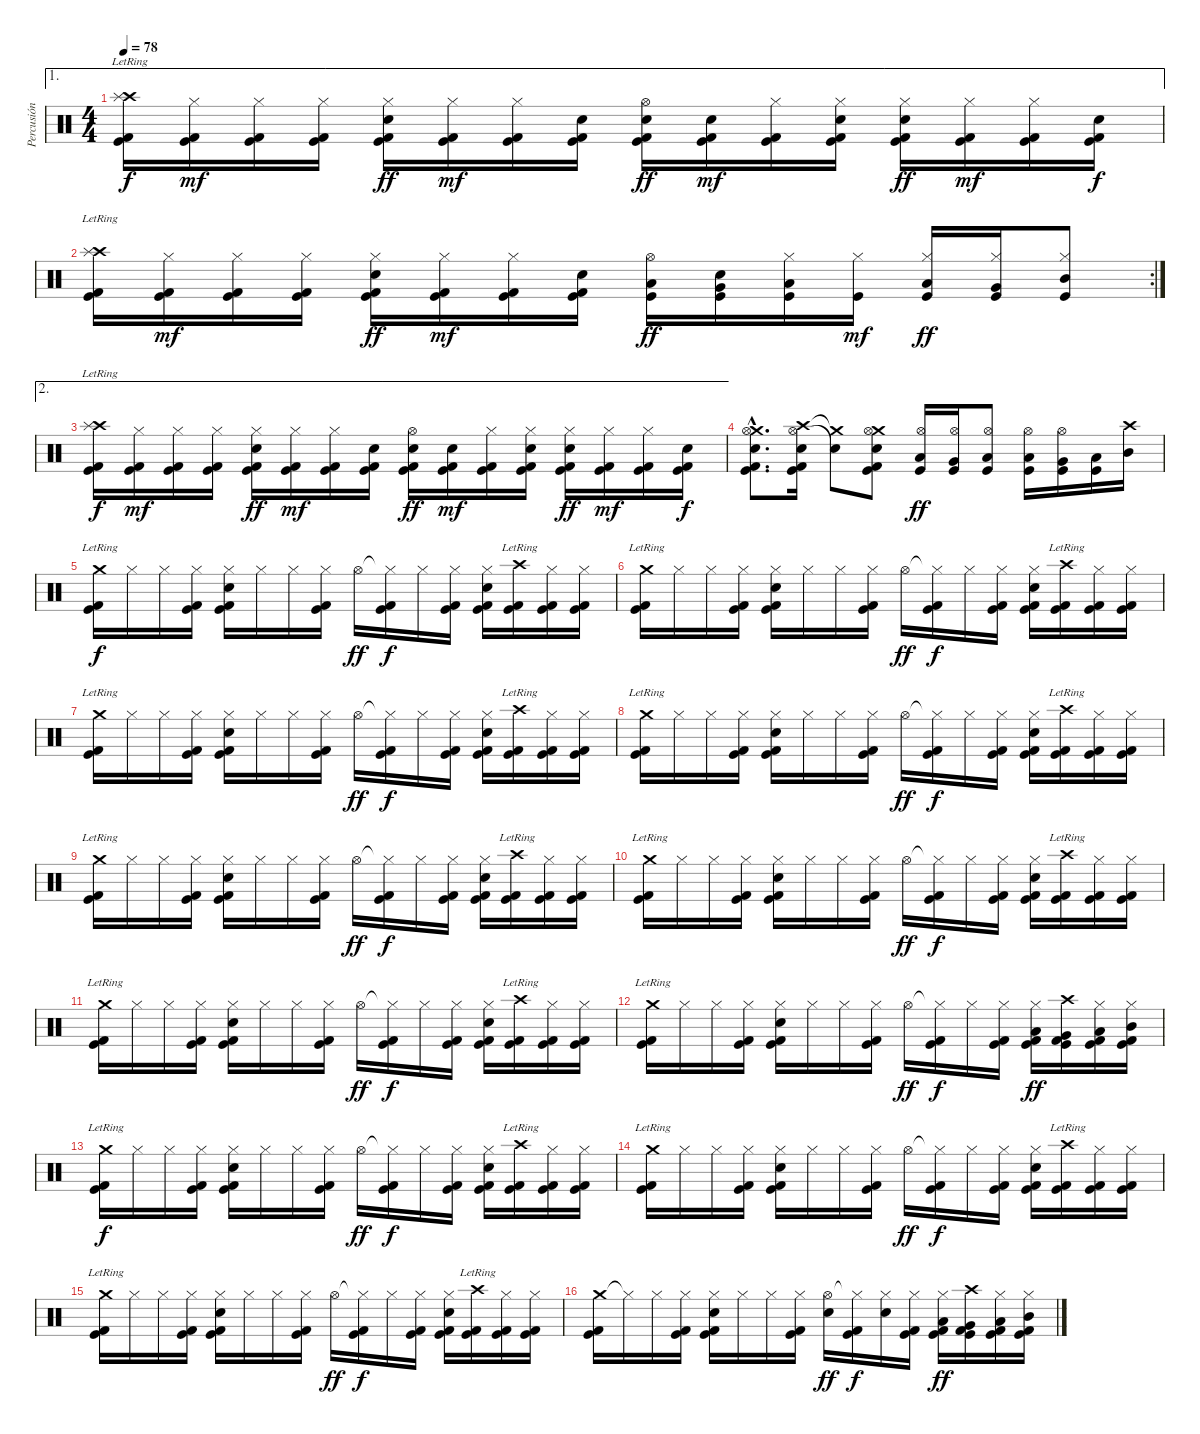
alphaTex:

\track ("Percusión" "Percusión") {instrument percussion}
\staff {score}
\articulation defaults
\ae 1
\ts (4 4)
\tempo 78
\clef neutral
\ks c
("Crash high (hit)"{lr} "Splash (hit)"{lr} "Kick (hit) 2" "Kick (hit)").16{dy f} ("Hi-Hat (closed)" "Kick (hit) 2" "Kick (hit)").16{dy mf} ("Hi-Hat (closed)" "Kick (hit) 2" "Kick (hit)").16 ("Hi-Hat (closed)" "Kick (hit) 2" "Kick (hit)").16 ("Hi-Hat (closed)" "Electric Snare (hit)" "Kick (hit) 2" "Kick (hit)").16{dy ff} ("Hi-Hat (closed)" "Kick (hit) 2" "Kick (hit)").16{dy mf} ("Hi-Hat (closed)" "Kick (hit) 2" "Kick (hit)").16 ("Snare (hit)" "Kick (hit) 2" "Kick (hit)").16 ("Hi-Hat (open)" "Electric Snare (hit)" "Kick (hit) 2" "Kick (hit)").16{dy ff} ("Snare (hit)" "Kick (hit) 2" "Kick (hit)").16{dy mf} ("Hi-Hat (closed)" "Kick (hit) 2" "Kick (hit)").16 ("Hi-Hat (closed)" "Electric Snare (hit)" "Kick (hit) 2" "Kick (hit)").16 ("Hi-Hat (closed)" "Electric Snare (hit)" "Kick (hit) 2" "Kick (hit)").16{dy ff} ("Hi-Hat (closed)" "Kick (hit) 2" "Kick (hit)").16{dy mf} ("Hi-Hat (closed)" "Kick (hit) 2" "Kick (hit)").16 ("Electric Snare (hit)" "Kick (hit) 2" "Kick (hit)").16{dy f} |
\rc 2
("Crash high (hit)"{lr} "Splash (hit)"{lr} "Kick (hit) 2" "Kick (hit)").16 ("Hi-Hat (closed)" "Kick (hit) 2" "Kick (hit)").16{dy mf} ("Hi-Hat (closed)" "Kick (hit) 2" "Kick (hit)").16 ("Hi-Hat (closed)" "Kick (hit) 2" "Kick (hit)").16 ("Hi-Hat (closed)" "Electric Snare (hit)" "Kick (hit) 2" "Kick (hit)").16{dy ff} ("Hi-Hat (closed)" "Kick (hit) 2" "Kick (hit)").16{dy mf} ("Hi-Hat (closed)" "Kick (hit) 2" "Kick (hit)").16 ("Snare (hit)" "Kick (hit) 2" "Kick (hit)").16 ("Hi-Hat (open)" "Low Floor Tom (hit)" "Kick (hit)").16{dy ff} ("Snare (hit)" "Very Low Tom (hit)" "Kick (hit)").16 ("Hi-Hat (closed)" "Low Tom (hit)" "Kick (hit)").16 ("Hi-Hat (closed)" "Kick (hit)").16{dy mf} ("Hi-Hat (closed)" "Low Floor Tom (hit)" "Kick (hit)").16{dy ff} ("Hi-Hat (closed)" "Very Low Tom (hit)" "Kick (hit)").16 ("Hi-Hat (closed)" "Mid Tom (hit)" "Kick (hit)").8 |
\ae 2
("Crash high (hit)"{lr} "Splash (hit)"{lr} "Kick (hit) 2" "Kick (hit)").16{dy f} ("Hi-Hat (closed)" "Kick (hit) 2" "Kick (hit)").16{dy mf} ("Hi-Hat (closed)" "Kick (hit) 2" "Kick (hit)").16 ("Hi-Hat (closed)" "Kick (hit) 2" "Kick (hit)").16 ("Hi-Hat (closed)" "Electric Snare (hit)" "Kick (hit) 2" "Kick (hit)").16{dy ff} ("Hi-Hat (closed)" "Kick (hit) 2" "Kick (hit)").16{dy mf} ("Hi-Hat (closed)" "Kick (hit) 2" "Kick (hit)").16 ("Snare (hit)" "Kick (hit) 2" "Kick (hit)").16 ("Hi-Hat (open)" "Electric Snare (hit)" "Kick (hit) 2" "Kick (hit)").16{dy ff} ("Snare (hit)" "Kick (hit) 2" "Kick (hit)").16{dy mf} ("Hi-Hat (closed)" "Kick (hit) 2" "Kick (hit)").16 ("Hi-Hat (closed)" "Electric Snare (hit)" "Kick (hit) 2" "Kick (hit)").16 ("Hi-Hat (closed)" "Electric Snare (hit)" "Kick (hit) 2" "Kick (hit)").16{dy ff} ("Hi-Hat (closed)" "Kick (hit) 2" "Kick (hit)").16{dy mf} ("Hi-Hat (closed)" "Kick (hit) 2" "Kick (hit)").16 ("Electric Snare (hit)" "Kick (hit) 2" "Kick (hit)").16{dy f} |
("Crash medium (hit)"{hac} "Hi-Hat (open)"{hac} "Electric Snare (hit)"{hac} "Kick (hit) 2"{hac} "Kick (hit)"{hac}).8{d} ("Crash high (hit)" "Hi-Hat (open)" "Electric Snare (hit)" "Kick (hit) 2" "Kick (hit)").16 ("Crash medium (hit)"{t} "Snare (hit)"{t}).8 ("Crash medium (hit)" "Hi-Hat (open)" "Electric Snare (hit)" "Kick (hit) 2" "Kick (hit)").8 ("Hi-Hat (open)" "Low Floor Tom (hit)" "Kick (hit)").16{dy ff} ("Hi-Hat (open)" "Very Low Tom (hit)" "Kick (hit)").16 ("Hi-Hat (open)" "Low Tom (hit)" "Kick (hit)").8 ("Hi-Hat (open)" "Low Floor Tom (hit)" "Kick (hit)").16 ("Hi-Hat (open)" "Very Low Tom (hit)" "Kick (hit)").16 ("Low Tom (hit)" "Kick (hit)").16 ("Crash high (hit)" "Mid Tom (hit)").16 |
("Crash medium (hit)"{lr} "Kick (hit) 2" "Kick (hit)").16{dy f} "Hi-Hat (closed)".16 "Hi-Hat (closed)".16 ("Hi-Hat (closed)" "Kick (hit)" "Kick (hit) 2").16 ("Hi-Hat (closed)" "Electric Snare (hit)" "Kick (hit)" "Kick (hit) 2").16 "Hi-Hat (closed)".16 "Hi-Hat (closed)".16 ("Hi-Hat (closed)" "Kick (hit)" "Kick (hit) 2").16 "Hi-Hat (open)".16{dy ff} ("Hi-Hat (closed)"{t} "Kick (hit)" "Kick (hit) 2").16{dy f} "Hi-Hat (closed)".16 ("Hi-Hat (closed)" "Kick (hit) 2" "Kick (hit)").16 ("Hi-Hat (closed)" "Electric Snare (hit)" "Kick (hit) 2" "Kick (hit)").16 ("Crash high (hit)"{lr} "Kick (hit) 2" "Kick (hit)").16 ("Hi-Hat (closed)" "Kick (hit) 2" "Kick (hit)").16 ("Hi-Hat (closed)" "Kick (hit) 2" "Kick (hit)").16 |
("Crash medium (hit)"{lr} "Kick (hit) 2" "Kick (hit)").16 "Hi-Hat (closed)".16 "Hi-Hat (closed)".16 ("Hi-Hat (closed)" "Kick (hit)" "Kick (hit) 2").16 ("Hi-Hat (closed)" "Electric Snare (hit)" "Kick (hit)" "Kick (hit) 2").16 "Hi-Hat (closed)".16 "Hi-Hat (closed)".16 ("Hi-Hat (closed)" "Kick (hit)" "Kick (hit) 2").16 "Hi-Hat (open)".16{dy ff} ("Hi-Hat (closed)"{t} "Kick (hit)" "Kick (hit) 2").16{dy f} "Hi-Hat (closed)".16 ("Hi-Hat (closed)" "Kick (hit) 2" "Kick (hit)").16 ("Hi-Hat (closed)" "Electric Snare (hit)" "Kick (hit) 2" "Kick (hit)").16 ("Crash high (hit)"{lr} "Kick (hit) 2" "Kick (hit)").16 ("Hi-Hat (closed)" "Kick (hit) 2" "Kick (hit)").16 ("Hi-Hat (closed)" "Kick (hit) 2" "Kick (hit)").16 |
("Crash medium (hit)"{lr} "Kick (hit) 2" "Kick (hit)").16 "Hi-Hat (closed)".16 "Hi-Hat (closed)".16 ("Hi-Hat (closed)" "Kick (hit)" "Kick (hit) 2").16 ("Hi-Hat (closed)" "Electric Snare (hit)" "Kick (hit)" "Kick (hit) 2").16 "Hi-Hat (closed)".16 "Hi-Hat (closed)".16 ("Hi-Hat (closed)" "Kick (hit)" "Kick (hit) 2").16 "Hi-Hat (open)".16{dy ff} ("Hi-Hat (closed)"{t} "Kick (hit)" "Kick (hit) 2").16{dy f} "Hi-Hat (closed)".16 ("Hi-Hat (closed)" "Kick (hit) 2" "Kick (hit)").16 ("Hi-Hat (closed)" "Electric Snare (hit)" "Kick (hit) 2" "Kick (hit)").16 ("Crash high (hit)"{lr} "Kick (hit) 2" "Kick (hit)").16 ("Hi-Hat (closed)" "Kick (hit) 2" "Kick (hit)").16 ("Hi-Hat (closed)" "Kick (hit) 2" "Kick (hit)").16 |
("Crash medium (hit)"{lr} "Kick (hit) 2" "Kick (hit)").16 "Hi-Hat (closed)".16 "Hi-Hat (closed)".16 ("Hi-Hat (closed)" "Kick (hit)" "Kick (hit) 2").16 ("Hi-Hat (closed)" "Electric Snare (hit)" "Kick (hit)" "Kick (hit) 2").16 "Hi-Hat (closed)".16 "Hi-Hat (closed)".16 ("Hi-Hat (closed)" "Kick (hit)" "Kick (hit) 2").16 "Hi-Hat (open)".16{dy ff} ("Hi-Hat (closed)"{t} "Kick (hit)" "Kick (hit) 2").16{dy f} "Hi-Hat (closed)".16 ("Hi-Hat (closed)" "Kick (hit) 2" "Kick (hit)").16 ("Hi-Hat (closed)" "Electric Snare (hit)" "Kick (hit) 2" "Kick (hit)").16 ("Crash high (hit)"{lr} "Kick (hit) 2" "Kick (hit)").16 ("Hi-Hat (closed)" "Kick (hit) 2" "Kick (hit)").16 ("Hi-Hat (closed)" "Kick (hit) 2" "Kick (hit)").16 |
("Crash medium (hit)"{lr} "Kick (hit) 2" "Kick (hit)").16 "Hi-Hat (closed)".16 "Hi-Hat (closed)".16 ("Hi-Hat (closed)" "Kick (hit)" "Kick (hit) 2").16 ("Hi-Hat (closed)" "Electric Snare (hit)" "Kick (hit)" "Kick (hit) 2").16 "Hi-Hat (closed)".16 "Hi-Hat (closed)".16 ("Hi-Hat (closed)" "Kick (hit)" "Kick (hit) 2").16 "Hi-Hat (open)".16{dy ff} ("Hi-Hat (closed)"{t} "Kick (hit)" "Kick (hit) 2").16{dy f} "Hi-Hat (closed)".16 ("Hi-Hat (closed)" "Kick (hit) 2" "Kick (hit)").16 ("Hi-Hat (closed)" "Electric Snare (hit)" "Kick (hit) 2" "Kick (hit)").16 ("Crash high (hit)"{lr} "Kick (hit) 2" "Kick (hit)").16 ("Hi-Hat (closed)" "Kick (hit) 2" "Kick (hit)").16 ("Hi-Hat (closed)" "Kick (hit) 2" "Kick (hit)").16 |
("Crash medium (hit)"{lr} "Kick (hit) 2" "Kick (hit)").16 "Hi-Hat (closed)".16 "Hi-Hat (closed)".16 ("Hi-Hat (closed)" "Kick (hit)" "Kick (hit) 2").16 ("Hi-Hat (closed)" "Electric Snare (hit)" "Kick (hit)" "Kick (hit) 2").16 "Hi-Hat (closed)".16 "Hi-Hat (closed)".16 ("Hi-Hat (closed)" "Kick (hit)" "Kick (hit) 2").16 "Hi-Hat (open)".16{dy ff} ("Hi-Hat (closed)"{t} "Kick (hit)" "Kick (hit) 2").16{dy f} "Hi-Hat (closed)".16 ("Hi-Hat (closed)" "Kick (hit) 2" "Kick (hit)").16 ("Hi-Hat (closed)" "Electric Snare (hit)" "Kick (hit) 2" "Kick (hit)").16 ("Crash high (hit)"{lr} "Kick (hit) 2" "Kick (hit)").16 ("Hi-Hat (closed)" "Kick (hit) 2" "Kick (hit)").16 ("Hi-Hat (closed)" "Kick (hit) 2" "Kick (hit)").16 |
("Crash medium (hit)"{lr} "Kick (hit) 2" "Kick (hit)").16 "Hi-Hat (closed)".16 "Hi-Hat (closed)".16 ("Hi-Hat (closed)" "Kick (hit)" "Kick (hit) 2").16 ("Hi-Hat (closed)" "Electric Snare (hit)" "Kick (hit)" "Kick (hit) 2").16 "Hi-Hat (closed)".16 "Hi-Hat (closed)".16 ("Hi-Hat (closed)" "Kick (hit)" "Kick (hit) 2").16 "Hi-Hat (open)".16{dy ff} ("Hi-Hat (closed)"{t} "Kick (hit)" "Kick (hit) 2").16{dy f} "Hi-Hat (closed)".16 ("Hi-Hat (closed)" "Kick (hit) 2" "Kick (hit)").16 ("Hi-Hat (closed)" "Electric Snare (hit)" "Kick (hit) 2" "Kick (hit)").16 ("Crash high (hit)"{lr} "Kick (hit) 2" "Kick (hit)").16 ("Hi-Hat (closed)" "Kick (hit) 2" "Kick (hit)").16 ("Hi-Hat (closed)" "Kick (hit) 2" "Kick (hit)").16 |
("Crash medium (hit)"{lr} "Kick (hit) 2" "Kick (hit)").16 "Hi-Hat (closed)".16 "Hi-Hat (closed)".16 ("Hi-Hat (closed)" "Kick (hit)" "Kick (hit) 2").16 ("Hi-Hat (closed)" "Electric Snare (hit)" "Kick (hit)" "Kick (hit) 2").16 "Hi-Hat (closed)".16 "Hi-Hat (closed)".16 ("Hi-Hat (closed)" "Kick (hit)" "Kick (hit) 2").16 "Hi-Hat (open)".16{dy ff} ("Hi-Hat (closed)"{t} "Kick (hit)" "Kick (hit) 2").16{dy f} "Hi-Hat (closed)".16 ("Hi-Hat (closed)" "Kick (hit) 2" "Kick (hit)").16 ("Hi-Hat (closed)" "Low Floor Tom (hit)" "Kick (hit) 2" "Kick (hit)").16{dy ff} ("Crash high (hit)" "Very Low Tom (hit)" "Kick (hit) 2" "Kick (hit)").16 ("Hi-Hat (closed)" "Low Tom (hit)" "Kick (hit) 2" "Kick (hit)").16 ("Hi-Hat (closed)" "Mid Tom (hit)" "Kick (hit) 2" "Kick (hit)").16 |
("Crash medium (hit)"{lr} "Kick (hit) 2" "Kick (hit)").16{dy f} "Hi-Hat (closed)".16 "Hi-Hat (closed)".16 ("Hi-Hat (closed)" "Kick (hit)" "Kick (hit) 2").16 ("Hi-Hat (closed)" "Electric Snare (hit)" "Kick (hit)" "Kick (hit) 2").16 "Hi-Hat (closed)".16 "Hi-Hat (closed)".16 ("Hi-Hat (closed)" "Kick (hit)" "Kick (hit) 2").16 "Hi-Hat (open)".16{dy ff} ("Hi-Hat (closed)"{t} "Kick (hit)" "Kick (hit) 2").16{dy f} "Hi-Hat (closed)".16 ("Hi-Hat (closed)" "Kick (hit) 2" "Kick (hit)").16 ("Hi-Hat (closed)" "Electric Snare (hit)" "Kick (hit) 2" "Kick (hit)").16 ("Crash high (hit)"{lr} "Kick (hit) 2" "Kick (hit)").16 ("Hi-Hat (closed)" "Kick (hit) 2" "Kick (hit)").16 ("Hi-Hat (closed)" "Kick (hit) 2" "Kick (hit)").16 |
("Crash medium (hit)"{lr} "Kick (hit) 2" "Kick (hit)").16 "Hi-Hat (closed)".16 "Hi-Hat (closed)".16 ("Hi-Hat (closed)" "Kick (hit)" "Kick (hit) 2").16 ("Hi-Hat (closed)" "Electric Snare (hit)" "Kick (hit)" "Kick (hit) 2").16 "Hi-Hat (closed)".16 "Hi-Hat (closed)".16 ("Hi-Hat (closed)" "Kick (hit)" "Kick (hit) 2").16 "Hi-Hat (open)".16{dy ff} ("Hi-Hat (closed)"{t} "Kick (hit)" "Kick (hit) 2").16{dy f} "Hi-Hat (closed)".16 ("Hi-Hat (closed)" "Kick (hit) 2" "Kick (hit)").16 ("Hi-Hat (closed)" "Electric Snare (hit)" "Kick (hit) 2" "Kick (hit)").16 ("Crash high (hit)"{lr} "Kick (hit) 2" "Kick (hit)").16 ("Hi-Hat (closed)" "Kick (hit) 2" "Kick (hit)").16 ("Hi-Hat (closed)" "Kick (hit) 2" "Kick (hit)").16 |
("Crash medium (hit)"{lr} "Kick (hit) 2" "Kick (hit)").16 "Hi-Hat (closed)".16 "Hi-Hat (closed)".16 ("Hi-Hat (closed)" "Kick (hit)" "Kick (hit) 2").16 ("Hi-Hat (closed)" "Electric Snare (hit)" "Kick (hit)" "Kick (hit) 2").16 "Hi-Hat (closed)".16 "Hi-Hat (closed)".16 ("Hi-Hat (closed)" "Kick (hit)" "Kick (hit) 2").16 "Hi-Hat (open)".16{dy ff} ("Hi-Hat (closed)"{t} "Kick (hit)" "Kick (hit) 2").16{dy f} "Hi-Hat (closed)".16 ("Hi-Hat (closed)" "Kick (hit) 2" "Kick (hit)").16 ("Hi-Hat (closed)" "Electric Snare (hit)" "Kick (hit) 2" "Kick (hit)").16 ("Crash high (hit)"{lr} "Kick (hit) 2" "Kick (hit)").16 ("Hi-Hat (closed)" "Kick (hit) 2" "Kick (hit)").16 ("Hi-Hat (closed)" "Kick (hit) 2" "Kick (hit)").16 |
("Crash medium (hit)" "Kick (hit) 2" "Kick (hit)").16 "Hi-Hat (closed)"{t}.16 "Hi-Hat (closed)".16 ("Hi-Hat (closed)" "Kick (hit)" "Kick (hit) 2").16 ("Hi-Hat (closed)" "Electric Snare (hit)" "Kick (hit)" "Kick (hit) 2").16 "Hi-Hat (closed)".16 "Hi-Hat (closed)".16 ("Hi-Hat (closed)" "Kick (hit)" "Kick (hit) 2").16 ("Hi-Hat (open)" "Electric Snare (hit)").16{dy ff} ("Hi-Hat (closed)"{t} "Kick (hit)" "Kick (hit) 2").16{dy f} ("Hi-Hat (closed)" "Electric Snare (hit)").16 ("Hi-Hat (closed)" "Kick (hit) 2" "Kick (hit)").16 ("Hi-Hat (closed)" "Low Floor Tom (hit)" "Kick (hit) 2" "Kick (hit)").16{dy ff} ("Crash high (hit)" "Very Low Tom (hit)" "Kick (hit) 2" "Kick (hit)").16 ("Hi-Hat (closed)" "Low Tom (hit)" "Kick (hit) 2" "Kick (hit)").16 ("Hi-Hat (closed)" "Mid Tom (hit)" "Kick (hit) 2" "Kick (hit)").16
